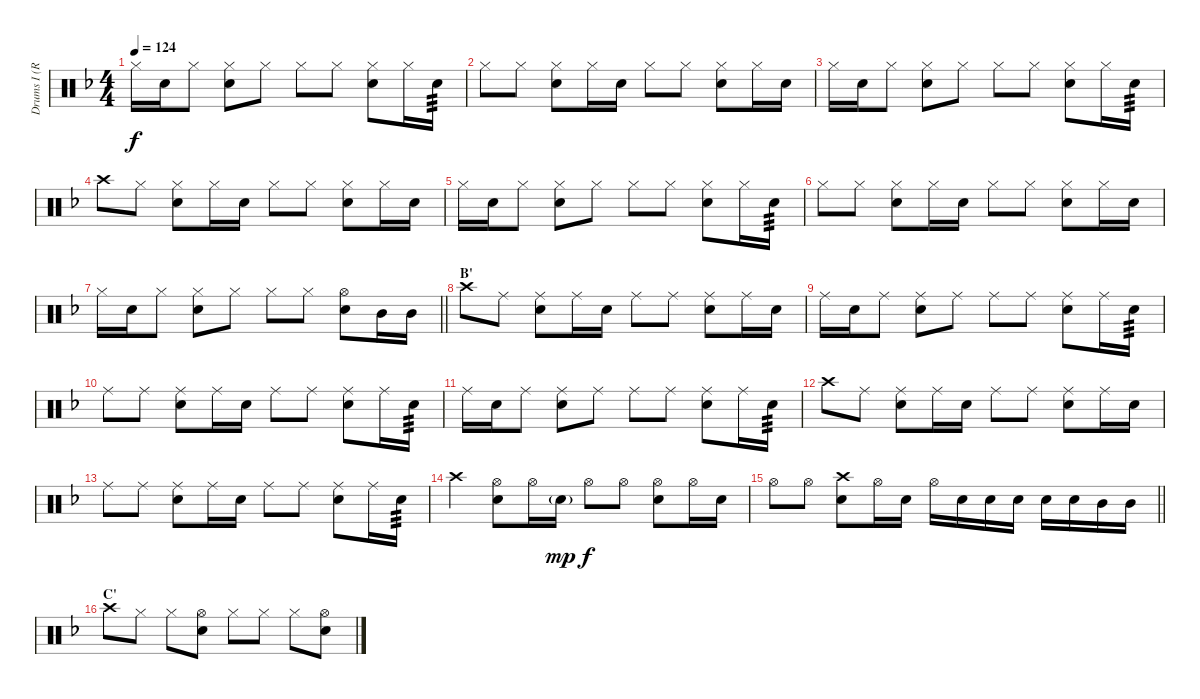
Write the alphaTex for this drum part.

\track ("Drums I (RUKA)" "Drums I (R") {instrument percussion}
\staff {score}
\articulation defaults
\ts (4 4)
\tempo 124
\clef neutral
\ks f "Hi-Hat (closed)".16{dy f} "Snare (hit) 2".16 "Hi-Hat (closed)".8
("Hi-Hat (closed)" "Snare (hit) 2").8 "Hi-Hat (closed)".8 "Hi-Hat (closed)".8 "Hi-Hat (closed)".8 ("Hi-Hat (closed)" "Snare (hit) 2").8 "Hi-Hat (closed)".16 "Snare (hit) 2".16{tp 3} |
"Hi-Hat (closed)".8 "Hi-Hat (closed)".8 ("Hi-Hat (closed)" "Snare (hit) 2").8 "Hi-Hat (closed)".16 "Snare (hit) 2".16 "Hi-Hat (closed)".8 "Hi-Hat (closed)".8 ("Hi-Hat (closed)" "Snare (hit) 2").8 "Hi-Hat (closed)".16 "Snare (hit) 2".16 |
"Hi-Hat (closed)".16 "Snare (hit) 2".16 "Hi-Hat (closed)".8 ("Hi-Hat (closed)" "Snare (hit) 2").8 "Hi-Hat (closed)".8 "Hi-Hat (closed)".8 "Hi-Hat (closed)".8 ("Hi-Hat (closed)" "Snare (hit) 2").8 "Hi-Hat (closed)".16 "Snare (hit) 2".16{tp 3} |
"Crash high (hit)".8 "Hi-Hat (closed)".8 ("Hi-Hat (closed)" "Snare (hit) 2").8 "Hi-Hat (closed)".16 "Snare (hit) 2".16 "Hi-Hat (closed)".8 "Hi-Hat (closed)".8 ("Hi-Hat (closed)" "Snare (hit) 2").8 "Hi-Hat (closed)".16 "Snare (hit) 2".16 |
"Hi-Hat (closed)".16 "Snare (hit) 2".16 "Hi-Hat (closed)".8 ("Hi-Hat (closed)" "Snare (hit) 2").8 "Hi-Hat (closed)".8 "Hi-Hat (closed)".8 "Hi-Hat (closed)".8 ("Hi-Hat (closed)" "Snare (hit) 2").8 "Hi-Hat (closed)".16 "Snare (hit) 2".16{tp 3} |
"Hi-Hat (closed)".8 "Hi-Hat (closed)".8 ("Hi-Hat (closed)" "Snare (hit) 2").8 "Hi-Hat (closed)".16 "Snare (hit) 2".16 "Hi-Hat (closed)".8 "Hi-Hat (closed)".8 ("Hi-Hat (closed)" "Snare (hit) 2").8 "Hi-Hat (closed)".16 "Snare (hit) 2".16 |
\barLineRight lightlight "Hi-Hat (closed)".16 "Snare (hit) 2".16 "Hi-Hat (closed)".8
("Hi-Hat (closed)" "Snare (hit) 2").8 "Hi-Hat (closed)".8 "Hi-Hat (closed)".8 "Hi-Hat (closed)".8 ("Hi-Hat (open)" "Snare (hit) 2").8 "Mid Tom (hit)".16 "Mid Tom (hit)".16 |
\section ("" "B'")
"Crash high (hit)".8 "Ride (middle)".8 ("Ride (middle)" "Snare (hit) 2").8 "Ride (middle)".16 "Snare (hit) 2".16 "Ride (middle)".8 "Ride (middle)".8 ("Ride (middle)" "Snare (hit) 2").8 "Ride (middle)".16 "Snare (hit) 2".16 |
"Ride (middle)".16 "Snare (hit) 2".16 "Ride (middle)".8 ("Ride (middle)" "Snare (hit) 2").8 "Ride (middle)".8 "Ride (middle)".8 "Ride (middle)".8 ("Ride (middle)" "Snare (hit) 2").8 "Ride (middle)".16 "Snare (hit) 2".16{tp 3} |
"Ride (middle)".8 "Ride (middle)".8 ("Ride (middle)" "Snare (hit) 2").8 "Ride (middle)".16 "Snare (hit) 2".16 "Ride (middle)".8 "Ride (middle)".8 ("Ride (middle)" "Snare (hit) 2").8 "Ride (middle)".16 "Snare (hit) 2".16{tp 3} |
"Ride (middle)".16 "Snare (hit) 2".16 "Ride (middle)".8 ("Ride (middle)" "Snare (hit) 2").8 "Ride (middle)".8 "Ride (middle)".8 "Ride (middle)".8 ("Ride (middle)" "Snare (hit) 2").8 "Ride (middle)".16 "Snare (hit) 2".16{tp 3} |
"Crash high (hit)".8 "Ride (middle)".8 ("Ride (middle)" "Snare (hit) 2").8 "Ride (middle)".16 "Snare (hit) 2".16 "Ride (middle)".8 "Ride (middle)".8 ("Ride (middle)" "Snare (hit) 2").8 "Ride (middle)".16 "Snare (hit) 2".16 |
"Ride (middle)".8 "Ride (middle)".8 ("Ride (middle)" "Snare (hit) 2").8 "Ride (middle)".16 "Snare (hit) 2".16 "Ride (middle)".8 "Ride (middle)".8 ("Ride (middle)" "Snare (hit) 2").8 "Ride (middle)".16 "Snare (hit) 2".16{tp 3} |
"Crash high (hit)".4 ("Hi-Hat (open)" "Snare (hit) 2").8 "Hi-Hat (open)".16 "Snare (hit) 2"{g}.16{dy mp} "Hi-Hat (open)".8{dy f} "Hi-Hat (open)".8 ("Hi-Hat (open)" "Snare (hit) 2").8 "Hi-Hat (open)".16 "Snare (hit) 2".16 |
\barLineRight lightlight "Hi-Hat (open)".8 "Hi-Hat (open)".8
("Crash high (hit)" "Snare (hit) 2").8 "Hi-Hat (open)".16 "Snare (hit) 2".16 "Hi-Hat (open)".16 "Snare (hit) 2".16 "Snare (hit) 2".16 "Snare (hit) 2".16 "Snare (hit) 2".16 "Snare (hit) 2".16 "Mid Tom (hit)".16 "Mid Tom (hit)".16 |
\section ("" "C'")
"Crash high (hit)".8 "Hi-Hat (closed)".8 "Hi-Hat (closed)".8 ("Hi-Hat (open)" "Snare (hit) 2").8 "Hi-Hat (closed)".8 "Hi-Hat (closed)".8 "Hi-Hat (closed)".8 ("Hi-Hat (open)" "Snare (hit) 2").8
